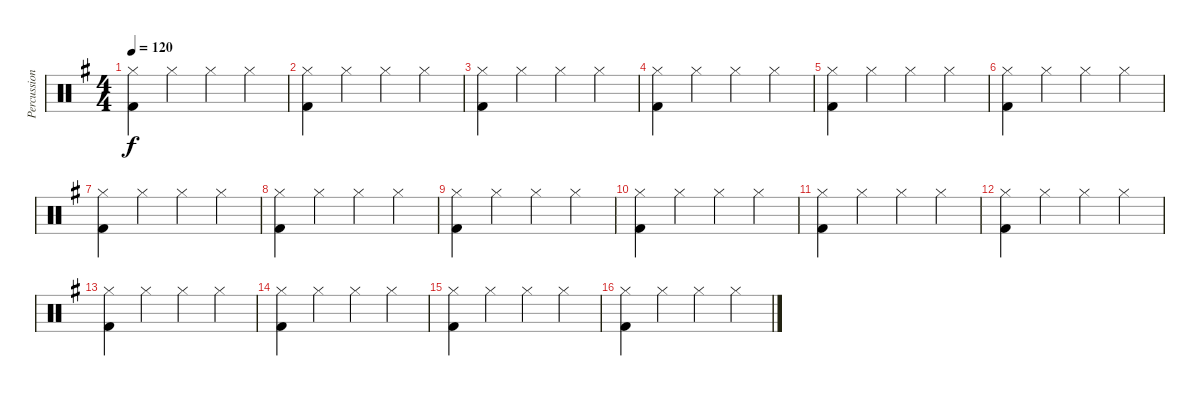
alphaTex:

\track ("Percussion" "Percussion") {instrument percussion}
\staff {score}
\articulation defaults
\ts (4 4)
\tempo 120
\clef neutral
\ks eminor
("Hi-Hat (closed)" "Kick (hit) 2").4{dy f} "Hi-Hat (closed)".4 "Hi-Hat (closed)".4 "Hi-Hat (closed)".4 |
("Hi-Hat (closed)" "Kick (hit) 2").4 "Hi-Hat (closed)".4 "Hi-Hat (closed)".4 "Hi-Hat (closed)".4 |
("Hi-Hat (closed)" "Kick (hit) 2").4 "Hi-Hat (closed)".4 "Hi-Hat (closed)".4 "Hi-Hat (closed)".4 |
("Hi-Hat (closed)" "Kick (hit) 2").4 "Hi-Hat (closed)".4 "Hi-Hat (closed)".4 "Hi-Hat (closed)".4 |
("Hi-Hat (closed)" "Kick (hit) 2").4 "Hi-Hat (closed)".4 "Hi-Hat (closed)".4 "Hi-Hat (closed)".4 |
("Hi-Hat (closed)" "Kick (hit) 2").4 "Hi-Hat (closed)".4 "Hi-Hat (closed)".4 "Hi-Hat (closed)".4 |
("Hi-Hat (closed)" "Kick (hit) 2").4 "Hi-Hat (closed)".4 "Hi-Hat (closed)".4 "Hi-Hat (closed)".4 |
("Hi-Hat (closed)" "Kick (hit) 2").4 "Hi-Hat (closed)".4 "Hi-Hat (closed)".4 "Hi-Hat (closed)".4 |
("Hi-Hat (closed)" "Kick (hit) 2").4 "Hi-Hat (closed)".4 "Hi-Hat (closed)".4 "Hi-Hat (closed)".4 |
("Hi-Hat (closed)" "Kick (hit) 2").4 "Hi-Hat (closed)".4 "Hi-Hat (closed)".4 "Hi-Hat (closed)".4 |
("Hi-Hat (closed)" "Kick (hit) 2").4 "Hi-Hat (closed)".4 "Hi-Hat (closed)".4 "Hi-Hat (closed)".4 |
("Hi-Hat (closed)" "Kick (hit) 2").4 "Hi-Hat (closed)".4 "Hi-Hat (closed)".4 "Hi-Hat (closed)".4 |
("Hi-Hat (closed)" "Kick (hit) 2").4 "Hi-Hat (closed)".4 "Hi-Hat (closed)".4 "Hi-Hat (closed)".4 |
("Hi-Hat (closed)" "Kick (hit) 2").4 "Hi-Hat (closed)".4 "Hi-Hat (closed)".4 "Hi-Hat (closed)".4 |
("Hi-Hat (closed)" "Kick (hit) 2").4 "Hi-Hat (closed)".4 "Hi-Hat (closed)".4 "Hi-Hat (closed)".4 |
("Hi-Hat (closed)" "Kick (hit) 2").4 "Hi-Hat (closed)".4 "Hi-Hat (closed)".4 "Hi-Hat (closed)".4
